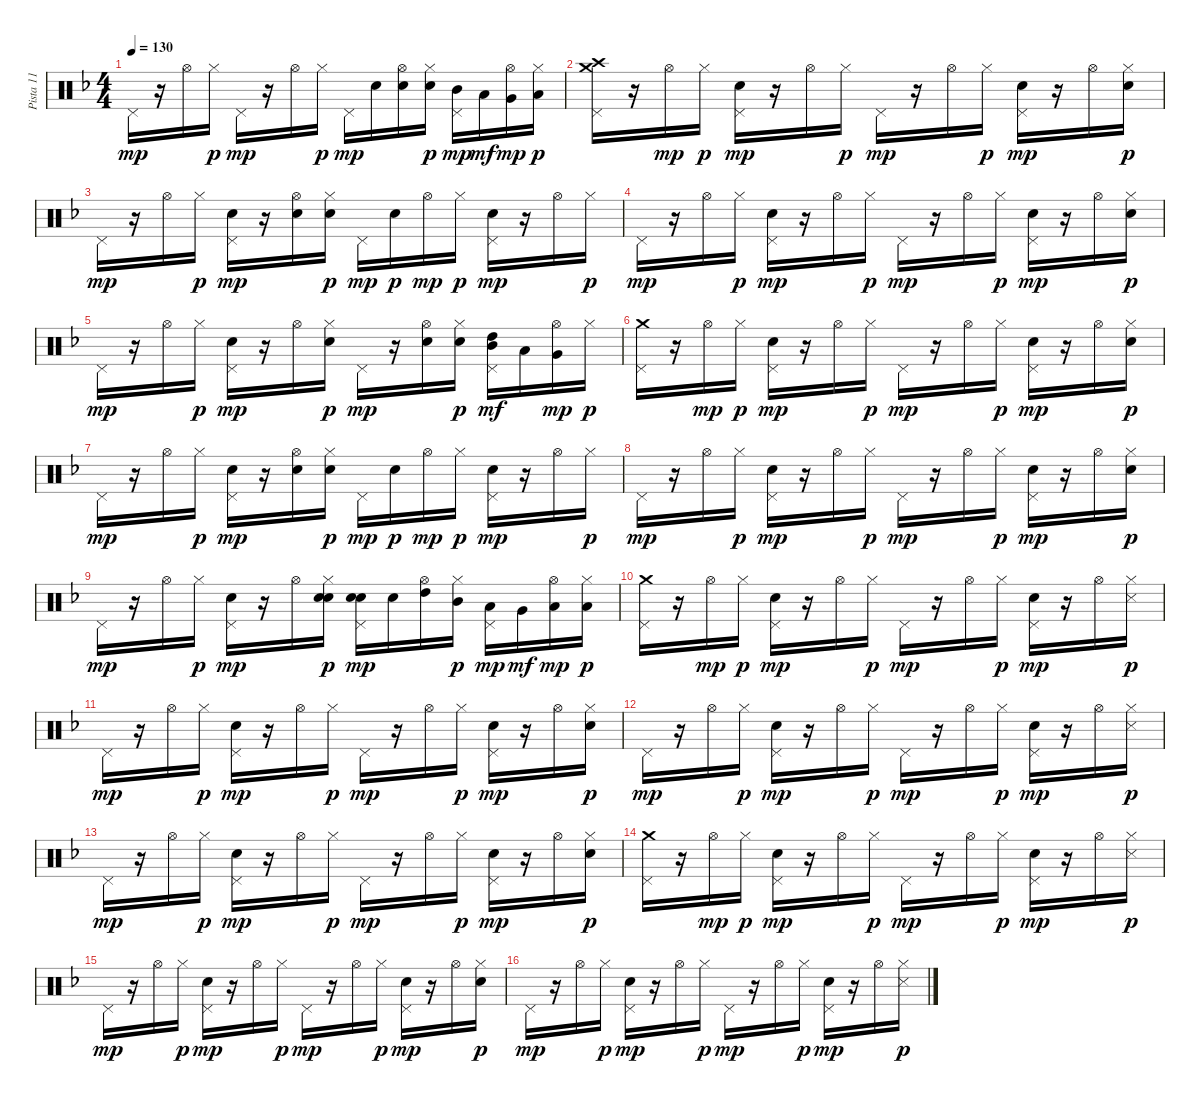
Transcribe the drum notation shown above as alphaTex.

\track ("Pista 11" "Pista 11") {instrument percussion}
\staff {score}
\articulation defaults
\ts (4 4)
\tempo 130
\clef neutral
\ks dminor "Pedal Hi-Hat (hit)".16{dy mp}
r.16 "Hi-Hat (open)".16 "Hi-Hat (closed)".16{dy p} "Pedal Hi-Hat (hit)".16{dy mp} r.16 "Hi-Hat (open)".16 "Hi-Hat (closed)".16{dy p} "Pedal Hi-Hat (hit)".16{dy mp} "Snare (hit) 2".16 ("Snare (hit) 2" "Hi-Hat (open)").16 ("Snare (hit) 2" "Hi-Hat (closed)").16{dy p} ("Mid Tom (hit)" "Pedal Hi-Hat (hit)").16{dy mp} "Low Tom (hit)".16{dy mf} ("Very Low Tom (hit)" "Hi-Hat (open)").16{dy mp} ("Low Floor Tom (hit)" "Hi-Hat (closed)").16{dy p} |
("Pedal Hi-Hat (hit)" "Crash high (hit)" "Crash medium (hit)").16 r.16 "Hi-Hat (open)".16{dy mp} "Hi-Hat (closed)".16{dy p} ("Snare (hit) 2" "Pedal Hi-Hat (hit)").16{dy mp} r.16 "Hi-Hat (open)".16 "Hi-Hat (closed)".16{dy p} "Pedal Hi-Hat (hit)".16{dy mp} r.16 "Hi-Hat (open)".16 "Hi-Hat (closed)".16{dy p} ("Snare (hit) 2" "Pedal Hi-Hat (hit)").16{dy mp} r.16 "Hi-Hat (open)".16 ("Electric Snare (hit)" "Hi-Hat (closed)").16{dy p} |
"Pedal Hi-Hat (hit)".16{dy mp} r.16 "Hi-Hat (open)".16 "Hi-Hat (closed)".16{dy p} ("Snare (hit) 2" "Pedal Hi-Hat (hit)").16{dy mp} r.16 ("Snare (hit) 2" "Hi-Hat (open)").16 ("Electric Snare (hit)" "Hi-Hat (closed)").16{dy p} "Pedal Hi-Hat (hit)".16{dy mp} "Snare (hit) 2".16{dy p} "Hi-Hat (open)".16{dy mp} "Hi-Hat (closed)".16{dy p} ("Snare (hit) 2" "Pedal Hi-Hat (hit)").16{dy mp} r.16 "Hi-Hat (open)".16 "Hi-Hat (closed)".16{dy p} |
"Pedal Hi-Hat (hit)".16{dy mp} r.16 "Hi-Hat (open)".16 "Hi-Hat (closed)".16{dy p} ("Snare (hit) 2" "Pedal Hi-Hat (hit)").16{dy mp} r.16 "Hi-Hat (open)".16 "Hi-Hat (closed)".16{dy p} "Pedal Hi-Hat (hit)".16{dy mp} r.16 "Hi-Hat (open)".16 "Hi-Hat (closed)".16{dy p} ("Snare (hit) 2" "Pedal Hi-Hat (hit)").16{dy mp} r.16 "Hi-Hat (open)".16 ("Electric Snare (hit)" "Hi-Hat (closed)").16{dy p} |
"Pedal Hi-Hat (hit)".16{dy mp} r.16 "Hi-Hat (open)".16 "Hi-Hat (closed)".16{dy p} ("Snare (hit) 2" "Pedal Hi-Hat (hit)").16{dy mp} r.16 "Hi-Hat (open)".16 ("Electric Snare (hit)" "Hi-Hat (closed)").16{dy p} "Pedal Hi-Hat (hit)".16{dy mp} r.16 ("Snare (hit) 2" "Hi-Hat (open)").16 ("Snare (hit) 2" "Hi-Hat (closed)").16{dy p} ("High Tom (hit)" "Pedal Hi-Hat (hit)" "Mid Tom (hit)").16{dy mf} "Low Tom (hit)".16 ("Very Low Tom (hit)" "Hi-Hat (open)").16{dy mp} "Hi-Hat (closed)".16{dy p} |
("Pedal Hi-Hat (hit)" "Crash medium (hit)").16 r.16 "Hi-Hat (open)".16{dy mp} "Hi-Hat (closed)".16{dy p} ("Snare (hit) 2" "Pedal Hi-Hat (hit)").16{dy mp} r.16 "Hi-Hat (open)".16 "Hi-Hat (closed)".16{dy p} "Pedal Hi-Hat (hit)".16{dy mp} r.16 "Hi-Hat (open)".16 "Hi-Hat (closed)".16{dy p} ("Snare (hit) 2" "Pedal Hi-Hat (hit)").16{dy mp} r.16 "Hi-Hat (open)".16 ("Electric Snare (hit)" "Hi-Hat (closed)").16{dy p} |
"Pedal Hi-Hat (hit)".16{dy mp} r.16 "Hi-Hat (open)".16 "Hi-Hat (closed)".16{dy p} ("Snare (hit) 2" "Pedal Hi-Hat (hit)").16{dy mp} r.16 ("Snare (hit) 2" "Hi-Hat (open)").16 ("Electric Snare (hit)" "Hi-Hat (closed)").16{dy p} "Pedal Hi-Hat (hit)".16{dy mp} "Snare (hit) 2".16{dy p} "Hi-Hat (open)".16{dy mp} "Hi-Hat (closed)".16{dy p} ("Snare (hit) 2" "Pedal Hi-Hat (hit)").16{dy mp} r.16 "Hi-Hat (open)".16 "Hi-Hat (closed)".16{dy p} |
"Pedal Hi-Hat (hit)".16{dy mp} r.16 "Hi-Hat (open)".16 "Hi-Hat (closed)".16{dy p} ("Snare (hit) 2" "Pedal Hi-Hat (hit)").16{dy mp} r.16 "Hi-Hat (open)".16 "Hi-Hat (closed)".16{dy p} "Pedal Hi-Hat (hit)".16{dy mp} r.16 "Hi-Hat (open)".16 "Hi-Hat (closed)".16{dy p} ("Snare (hit) 2" "Pedal Hi-Hat (hit)").16{dy mp} r.16 "Hi-Hat (open)".16 ("Electric Snare (hit)" "Hi-Hat (closed)").16{dy p} |
"Pedal Hi-Hat (hit)".16{dy mp} r.16 "Hi-Hat (open)".16 "Hi-Hat (closed)".16{dy p} ("Snare (hit) 2" "Pedal Hi-Hat (hit)").16{dy mp} r.16 "Hi-Hat (open)".16 ("Electric Snare (hit)" "Hi-Hat (closed)" "Snare (hit) 2").16{dy p} ("Snare (hit) 2" "Pedal Hi-Hat (hit)" "Snare (hit) 2").16{dy mp} "Snare (hit) 2".16 ("High Tom (hit)" "Hi-Hat (open)").16 ("Mid Tom (hit)" "Hi-Hat (closed)").16{dy p} ("Low Tom (hit)" "Pedal Hi-Hat (hit)").16{dy mp} "Very Low Tom (hit)".16{dy mf} ("Low Floor Tom (hit)" "Hi-Hat (open)").16{dy mp} ("Low Floor Tom (hit)" "Hi-Hat (closed)").16{dy p} |
("Pedal Hi-Hat (hit)" "Crash medium (hit)").16 r.16 "Hi-Hat (open)".16{dy mp} "Hi-Hat (closed)".16{dy p} ("Snare (hit) 2" "Pedal Hi-Hat (hit)").16{dy mp} r.16 "Hi-Hat (open)".16 "Hi-Hat (closed)".16{dy p} "Pedal Hi-Hat (hit)".16{dy mp} r.16 "Hi-Hat (open)".16 "Hi-Hat (closed)".16{dy p} ("Snare (hit) 2" "Pedal Hi-Hat (hit)").16{dy mp} r.16 "Hi-Hat (open)".16 ("Snare (side stick) 3" "Hi-Hat (closed)").16{dy p} |
"Pedal Hi-Hat (hit)".16{dy mp} r.16 "Hi-Hat (open)".16 "Hi-Hat (closed)".16{dy p} ("Snare (hit) 2" "Pedal Hi-Hat (hit)").16{dy mp} r.16 "Hi-Hat (open)".16 "Hi-Hat (closed)".16{dy p} "Pedal Hi-Hat (hit)".16{dy mp} r.16 "Hi-Hat (open)".16 "Hi-Hat (closed)".16{dy p} ("Snare (hit) 2" "Pedal Hi-Hat (hit)").16{dy mp} r.16 "Hi-Hat (open)".16 ("Electric Snare (hit)" "Hi-Hat (closed)").16{dy p} |
"Pedal Hi-Hat (hit)".16{dy mp} r.16 "Hi-Hat (open)".16 "Hi-Hat (closed)".16{dy p} ("Snare (hit) 2" "Pedal Hi-Hat (hit)").16{dy mp} r.16 "Hi-Hat (open)".16 "Hi-Hat (closed)".16{dy p} "Pedal Hi-Hat (hit)".16{dy mp} r.16 "Hi-Hat (open)".16 "Hi-Hat (closed)".16{dy p} ("Snare (hit) 2" "Pedal Hi-Hat (hit)").16{dy mp} r.16 "Hi-Hat (open)".16 ("Snare (side stick) 3" "Hi-Hat (closed)").16{dy p} |
"Pedal Hi-Hat (hit)".16{dy mp} r.16 "Hi-Hat (open)".16 "Hi-Hat (closed)".16{dy p} ("Snare (hit) 2" "Pedal Hi-Hat (hit)").16{dy mp} r.16 "Hi-Hat (open)".16 "Hi-Hat (closed)".16{dy p} "Pedal Hi-Hat (hit)".16{dy mp} r.16 "Hi-Hat (open)".16 "Hi-Hat (closed)".16{dy p} ("Snare (hit) 2" "Pedal Hi-Hat (hit)").16{dy mp} r.16 "Hi-Hat (open)".16 ("Electric Snare (hit)" "Hi-Hat (closed)").16{dy p} |
("Pedal Hi-Hat (hit)" "Crash medium (hit)").16 r.16 "Hi-Hat (open)".16{dy mp} "Hi-Hat (closed)".16{dy p} ("Snare (hit) 2" "Pedal Hi-Hat (hit)").16{dy mp} r.16 "Hi-Hat (open)".16 "Hi-Hat (closed)".16{dy p} "Pedal Hi-Hat (hit)".16{dy mp} r.16 "Hi-Hat (open)".16 "Hi-Hat (closed)".16{dy p} ("Snare (hit) 2" "Pedal Hi-Hat (hit)").16{dy mp} r.16 "Hi-Hat (open)".16 ("Snare (side stick) 3" "Hi-Hat (closed)").16{dy p} |
"Pedal Hi-Hat (hit)".16{dy mp} r.16 "Hi-Hat (open)".16 "Hi-Hat (closed)".16{dy p} ("Snare (hit) 2" "Pedal Hi-Hat (hit)").16{dy mp} r.16 "Hi-Hat (open)".16 "Hi-Hat (closed)".16{dy p} "Pedal Hi-Hat (hit)".16{dy mp} r.16 "Hi-Hat (open)".16 "Hi-Hat (closed)".16{dy p} ("Snare (hit) 2" "Pedal Hi-Hat (hit)").16{dy mp} r.16 "Hi-Hat (open)".16 ("Electric Snare (hit)" "Hi-Hat (closed)").16{dy p} |
"Pedal Hi-Hat (hit)".16{dy mp} r.16 "Hi-Hat (open)".16 "Hi-Hat (closed)".16{dy p} ("Snare (hit) 2" "Pedal Hi-Hat (hit)").16{dy mp} r.16 "Hi-Hat (open)".16 "Hi-Hat (closed)".16{dy p} "Pedal Hi-Hat (hit)".16{dy mp} r.16 "Hi-Hat (open)".16 "Hi-Hat (closed)".16{dy p} ("Snare (hit) 2" "Pedal Hi-Hat (hit)").16{dy mp} r.16 "Hi-Hat (open)".16 ("Snare (side stick) 3" "Hi-Hat (closed)").16{dy p}
